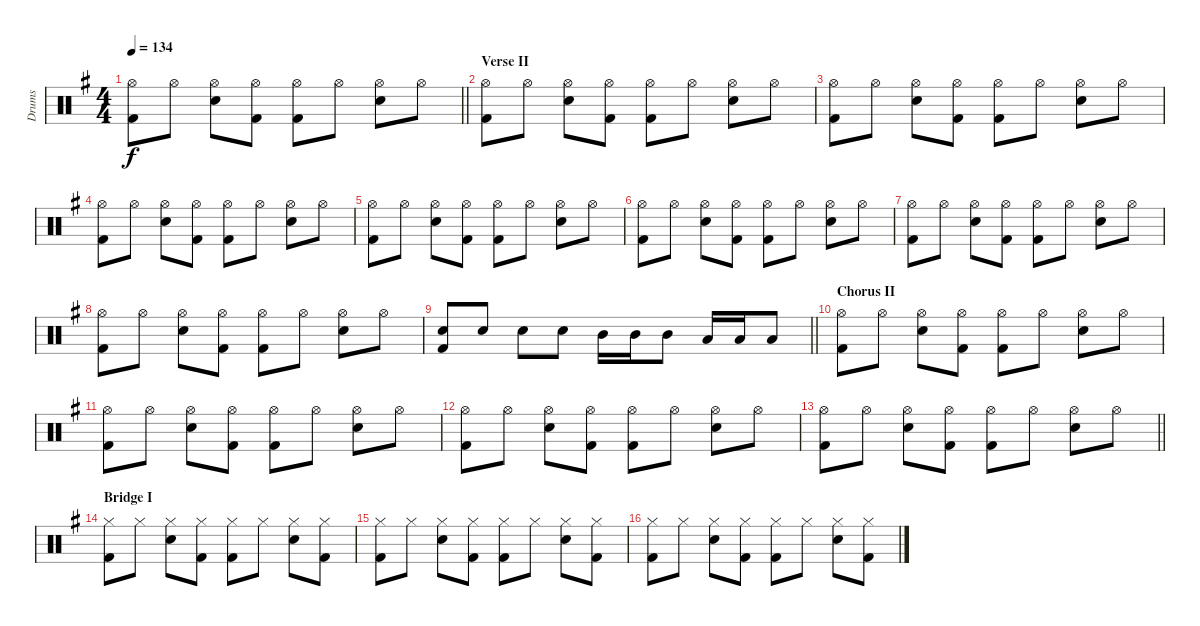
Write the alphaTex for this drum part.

\track ("Drums" "Drums") {instrument percussion}
\staff {score}
\articulation defaults
\ts (4 4)
\tempo 134
\clef neutral
\barLineRight lightlight
\ks g
("Hi-Hat (open)" "Kick (hit) 2").8{dy f} "Hi-Hat (open)".8 ("Hi-Hat (open)" "Snare (hit) 2").8 ("Hi-Hat (open)" "Kick (hit) 2").8 ("Hi-Hat (open)" "Kick (hit) 2").8 "Hi-Hat (open)".8 ("Hi-Hat (open)" "Snare (hit) 2").8 "Hi-Hat (open)".8 |
\section ("" "Verse II")
("Hi-Hat (open)" "Kick (hit) 2").8 "Hi-Hat (open)".8 ("Hi-Hat (open)" "Snare (hit) 2").8 ("Hi-Hat (open)" "Kick (hit) 2").8 ("Hi-Hat (open)" "Kick (hit) 2").8 "Hi-Hat (open)".8 ("Hi-Hat (open)" "Snare (hit) 2").8 "Hi-Hat (open)".8 |
("Hi-Hat (open)" "Kick (hit) 2").8 "Hi-Hat (open)".8 ("Hi-Hat (open)" "Snare (hit) 2").8 ("Hi-Hat (open)" "Kick (hit) 2").8 ("Hi-Hat (open)" "Kick (hit) 2").8 "Hi-Hat (open)".8 ("Hi-Hat (open)" "Snare (hit) 2").8 "Hi-Hat (open)".8 |
("Hi-Hat (open)" "Kick (hit) 2").8 "Hi-Hat (open)".8 ("Hi-Hat (open)" "Snare (hit) 2").8 ("Hi-Hat (open)" "Kick (hit) 2").8 ("Hi-Hat (open)" "Kick (hit) 2").8 "Hi-Hat (open)".8 ("Hi-Hat (open)" "Snare (hit) 2").8 "Hi-Hat (open)".8 |
("Hi-Hat (open)" "Kick (hit) 2").8 "Hi-Hat (open)".8 ("Hi-Hat (open)" "Snare (hit) 2").8 ("Hi-Hat (open)" "Kick (hit) 2").8 ("Hi-Hat (open)" "Kick (hit) 2").8 "Hi-Hat (open)".8 ("Hi-Hat (open)" "Snare (hit) 2").8 "Hi-Hat (open)".8 |
("Hi-Hat (open)" "Kick (hit) 2").8 "Hi-Hat (open)".8 ("Hi-Hat (open)" "Snare (hit) 2").8 ("Hi-Hat (open)" "Kick (hit) 2").8 ("Hi-Hat (open)" "Kick (hit) 2").8 "Hi-Hat (open)".8 ("Hi-Hat (open)" "Snare (hit) 2").8 "Hi-Hat (open)".8 |
("Hi-Hat (open)" "Kick (hit) 2").8 "Hi-Hat (open)".8 ("Hi-Hat (open)" "Snare (hit) 2").8 ("Hi-Hat (open)" "Kick (hit) 2").8 ("Hi-Hat (open)" "Kick (hit) 2").8 "Hi-Hat (open)".8 ("Hi-Hat (open)" "Snare (hit) 2").8 "Hi-Hat (open)".8 |
("Hi-Hat (open)" "Kick (hit) 2").8 "Hi-Hat (open)".8 ("Hi-Hat (open)" "Snare (hit) 2").8 ("Hi-Hat (open)" "Kick (hit) 2").8 ("Hi-Hat (open)" "Kick (hit) 2").8 "Hi-Hat (open)".8 ("Hi-Hat (open)" "Snare (hit) 2").8 "Hi-Hat (open)".8 |
\barLineRight lightlight
("Snare (hit) 2" "Kick (hit) 2").8 "Snare (hit) 2".8 "Snare (hit) 2".8 "Snare (hit) 2".8 "Mid Tom (hit)".16 "Mid Tom (hit)".16 "Mid Tom (hit)".8 "Low Tom (hit)".16 "Low Tom (hit)".16 "Low Tom (hit)".8 |
\section ("" "Chorus II")
("Hi-Hat (open)" "Kick (hit) 2").8 "Hi-Hat (open)".8 ("Hi-Hat (open)" "Snare (hit) 2").8 ("Hi-Hat (open)" "Kick (hit) 2").8 ("Hi-Hat (open)" "Kick (hit) 2").8 "Hi-Hat (open)".8 ("Hi-Hat (open)" "Snare (hit) 2").8 "Hi-Hat (open)".8 |
("Hi-Hat (open)" "Kick (hit) 2").8 "Hi-Hat (open)".8 ("Hi-Hat (open)" "Snare (hit) 2").8 ("Hi-Hat (open)" "Kick (hit) 2").8 ("Hi-Hat (open)" "Kick (hit) 2").8 "Hi-Hat (open)".8 ("Hi-Hat (open)" "Snare (hit) 2").8 "Hi-Hat (open)".8 |
("Hi-Hat (open)" "Kick (hit) 2").8 "Hi-Hat (open)".8 ("Hi-Hat (open)" "Snare (hit) 2").8 ("Hi-Hat (open)" "Kick (hit) 2").8 ("Hi-Hat (open)" "Kick (hit) 2").8 "Hi-Hat (open)".8 ("Hi-Hat (open)" "Snare (hit) 2").8 "Hi-Hat (open)".8 |
\barLineRight lightlight
("Hi-Hat (open)" "Kick (hit) 2").8 "Hi-Hat (open)".8 ("Hi-Hat (open)" "Snare (hit) 2").8 ("Hi-Hat (open)" "Kick (hit) 2").8 ("Hi-Hat (open)" "Kick (hit) 2").8 "Hi-Hat (open)".8 ("Hi-Hat (open)" "Snare (hit) 2").8 "Hi-Hat (open)".8 |
\section ("" "Bridge I")
("Hi-Hat (closed)" "Kick (hit) 2").8 "Hi-Hat (closed)".8 ("Hi-Hat (closed)" "Snare (hit) 2").8 ("Hi-Hat (closed)" "Kick (hit) 2").8 ("Hi-Hat (closed)" "Kick (hit) 2").8 "Hi-Hat (closed)".8 ("Hi-Hat (closed)" "Snare (hit) 2").8 ("Hi-Hat (closed)" "Kick (hit) 2").8 |
("Hi-Hat (closed)" "Kick (hit) 2").8 "Hi-Hat (closed)".8 ("Hi-Hat (closed)" "Snare (hit) 2").8 ("Hi-Hat (closed)" "Kick (hit) 2").8 ("Hi-Hat (closed)" "Kick (hit) 2").8 "Hi-Hat (closed)".8 ("Hi-Hat (closed)" "Snare (hit) 2").8 ("Hi-Hat (closed)" "Kick (hit) 2").8 |
("Hi-Hat (closed)" "Kick (hit) 2").8 "Hi-Hat (closed)".8 ("Hi-Hat (closed)" "Snare (hit) 2").8 ("Hi-Hat (closed)" "Kick (hit) 2").8 ("Hi-Hat (closed)" "Kick (hit) 2").8 "Hi-Hat (closed)".8 ("Hi-Hat (closed)" "Snare (hit) 2").8 ("Hi-Hat (closed)" "Kick (hit) 2").8
